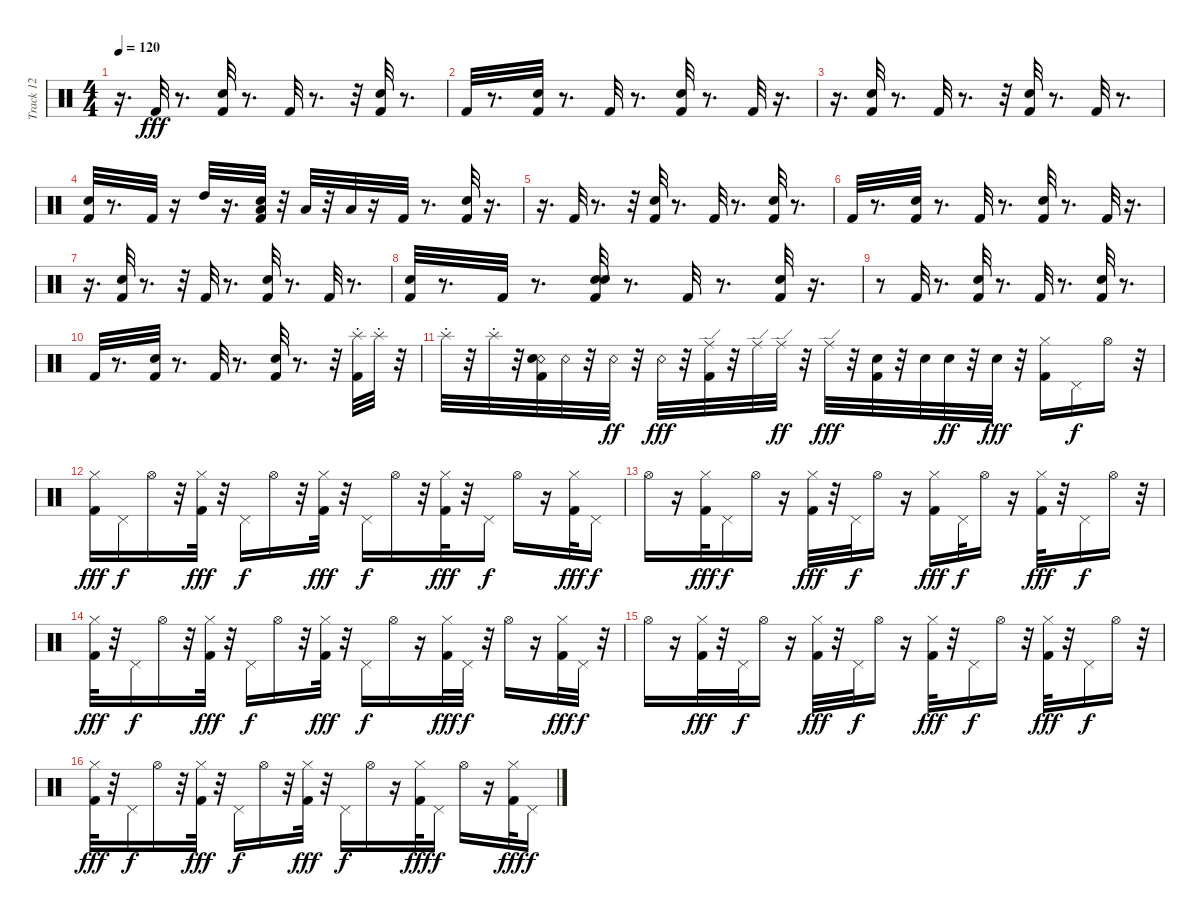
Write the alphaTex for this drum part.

\track ("Track 12" "Track 12") {instrument percussion}
\staff {score}
\articulation defaults
\ts (4 4)
\tempo 120
\clef neutral
\ks c
r.16{d dy fff} "Kick (hit) 2".32 r.8{d} ("Kick (hit) 2" "Electric Snare (hit)").32 r.8{d} "Kick (hit) 2".32 r.8{d} r.32 ("Kick (hit) 2" "Electric Snare (hit)").32 r.8{d} |
"Kick (hit) 2".32 r.8{d} ("Kick (hit) 2" "Electric Snare (hit)").32 r.8{d} "Kick (hit) 2".32 r.8{d} ("Kick (hit) 2" "Electric Snare (hit)").32 r.8{d} "Kick (hit) 2".32 r.16{d} |
r.16{d} ("Kick (hit) 2" "Electric Snare (hit)").32 r.8{d} "Kick (hit) 2".32 r.8{d} r.32 ("Kick (hit) 2" "Electric Snare (hit)").32 r.8{d} "Kick (hit) 2".32 r.8{d} |
("Kick (hit) 2" "Electric Snare (hit)").32 r.8{d} "Kick (hit) 2".32 r.16 "High Tom (hit)".32 r.16{d} ("Low Tom (hit)" "Kick (hit) 2" "Electric Snare (hit)").32 r.32 "Low Tom (hit)".32 r.32 "Low Floor Tom (hit)".32 r.16 "Kick (hit) 2".32 r.8{d} ("Electric Snare (hit)" "Kick (hit) 2").32 r.16{d} |
r.16{d} "Kick (hit) 2".32 r.8{d} r.32 ("Kick (hit) 2" "Electric Snare (hit)").32 r.8{d} "Kick (hit) 2".32 r.8{d} ("Kick (hit) 2" "Electric Snare (hit)").32 r.8{d} |
"Kick (hit) 2".32 r.8{d} ("Kick (hit) 2" "Electric Snare (hit)").32 r.8{d} "Kick (hit) 2".32 r.8{d} ("Electric Snare (hit)" "Kick (hit) 2").32 r.8{d} "Kick (hit) 2".32 r.16{d} |
r.16{d} ("Electric Snare (hit)" "Kick (hit) 2").32 r.8{d} r.32 "Kick (hit) 2".32 r.8{d} ("Kick (hit) 2" "Electric Snare (hit)").32 r.8{d} "Kick (hit) 2".32 r.8{d} |
("Kick (hit) 2" "Electric Snare (hit)").32 r.8{d} "Kick (hit) 2".32 r.8{d} ("Kick (hit) 2" "Snare (hit) 2" "Electric Snare (hit)").32 r.8{d} "Kick (hit) 2".32 r.8{d} ("Kick (hit) 2" "Electric Snare (hit)").32 r.16{d} |
r.8 "Kick (hit) 2".32 r.8{d} ("Kick (hit) 2" "Electric Snare (hit)").32 r.8{d} "Kick (hit) 2".32 r.8{d} ("Kick (hit) 2" "Electric Snare (hit)").32 r.8{d} |
"Kick (hit) 2".32 r.8{d} ("Kick (hit) 2" "Electric Snare (hit)").32 r.8{d} "Kick (hit) 2".32 r.8{d} ("Kick (hit) 2" "Electric Snare (hit)").32 r.8{d} r.32 ("Splash (choke)" "Kick (hit) 2").32 "Splash (choke)".32 r.32 |
"Splash (choke)".32 r.32 "Splash (choke)".32 r.32 ("Snare (rim shot)" "Kick (hit) 2" "Electric Snare (hit)").32 "Snare (rim shot)".32 r.32 "Snare (rim shot)".32{dy ff} r.32 "Snare (rim shot)".32{dy fff} r.32 ("Ride (edge)" "Kick (hit) 2").32 r.32 "Ride (edge)".32 "Ride (edge)".32{dy ff} r.32 "Ride (edge)".32{dy fff} r.32 ("Snare (hit)" "Kick (hit) 2").32 r.32 "Snare (hit)".32 "Snare (hit)".32{dy ff} r.32 "Snare (hit)".32{dy fff} r.32 ("Hi-Hat (closed)" "Kick (hit) 2").16 "Pedal Hi-Hat (hit)".16{dy f} "Hi-Hat (open)".16 r.32 |
("Hi-Hat (closed)" "Kick (hit) 2").16{dy fff} "Pedal Hi-Hat (hit)".16{dy f} "Hi-Hat (open)".16 r.32 ("Hi-Hat (closed)" "Kick (hit) 2").32{dy fff} r.32 "Pedal Hi-Hat (hit)".16{dy f} "Hi-Hat (open)".16 r.32 ("Hi-Hat (closed)" "Kick (hit) 2").32{dy fff} r.32 "Pedal Hi-Hat (hit)".16{dy f} "Hi-Hat (open)".16 r.32 ("Hi-Hat (closed)" "Kick (hit) 2").32{dy fff} r.32 "Pedal Hi-Hat (hit)".16{dy f} "Hi-Hat (open)".16 r.16 ("Hi-Hat (closed)" "Kick (hit) 2").32{dy fff} "Pedal Hi-Hat (hit)".16{dy f} |
"Hi-Hat (open)".16 r.16 ("Hi-Hat (closed)" "Kick (hit) 2").32{dy fff} "Pedal Hi-Hat (hit)".16{dy f} "Hi-Hat (open)".16 r.16 ("Hi-Hat (closed)" "Kick (hit) 2").32{dy fff} r.32 "Pedal Hi-Hat (hit)".32{dy f} "Hi-Hat (open)".16 r.16 ("Hi-Hat (closed)" "Kick (hit) 2").16{dy fff} "Pedal Hi-Hat (hit)".32{dy f} "Hi-Hat (open)".16 r.16 ("Hi-Hat (closed)" "Kick (hit) 2").32{dy fff} r.32 "Pedal Hi-Hat (hit)".16{dy f} "Hi-Hat (open)".16 r.32 |
("Hi-Hat (closed)" "Kick (hit) 2").32{dy fff} r.32 "Pedal Hi-Hat (hit)".16{dy f} "Hi-Hat (open)".16 r.32 ("Hi-Hat (closed)" "Kick (hit) 2").32{dy fff} r.32 "Pedal Hi-Hat (hit)".16{dy f} "Hi-Hat (open)".16 r.32 ("Hi-Hat (closed)" "Kick (hit) 2").32{dy fff} r.32 "Pedal Hi-Hat (hit)".16{dy f} "Hi-Hat (open)".16 r.16 ("Hi-Hat (closed)" "Kick (hit) 2").32{dy fff} "Pedal Hi-Hat (hit)".32{dy f} r.32 "Hi-Hat (open)".16 r.16 ("Hi-Hat (closed)" "Kick (hit) 2").32{dy fff} "Pedal Hi-Hat (hit)".32{dy f} r.32 |
"Hi-Hat (open)".16 r.16 ("Hi-Hat (closed)" "Kick (hit) 2").32{dy fff} r.32 "Pedal Hi-Hat (hit)".32{dy f} "Hi-Hat (open)".16 r.16 ("Hi-Hat (closed)" "Kick (hit) 2").32{dy fff} r.32 "Pedal Hi-Hat (hit)".32{dy f} "Hi-Hat (open)".16 r.16 ("Hi-Hat (closed)" "Kick (hit) 2").32{dy fff} r.32 "Pedal Hi-Hat (hit)".16{dy f} "Hi-Hat (open)".16 r.32 ("Hi-Hat (closed)" "Kick (hit) 2").32{dy fff} r.32 "Pedal Hi-Hat (hit)".16{dy f} "Hi-Hat (open)".16 r.32 |
("Hi-Hat (closed)" "Kick (hit) 2").32{dy fff} r.32 "Pedal Hi-Hat (hit)".16{dy f} "Hi-Hat (open)".16 r.32 ("Hi-Hat (closed)" "Kick (hit) 2").32{dy fff} r.32 "Pedal Hi-Hat (hit)".16{dy f} "Hi-Hat (open)".16 r.32 ("Hi-Hat (closed)" "Kick (hit) 2").32{dy fff} r.32 "Pedal Hi-Hat (hit)".16{dy f} "Hi-Hat (open)".16 r.16 ("Hi-Hat (closed)" "Kick (hit) 2").32{dy fff} "Pedal Hi-Hat (hit)".16{dy f} "Hi-Hat (open)".16 r.16 ("Hi-Hat (closed)" "Kick (hit) 2").32{dy fff} "Pedal Hi-Hat (hit)".16{dy f}
